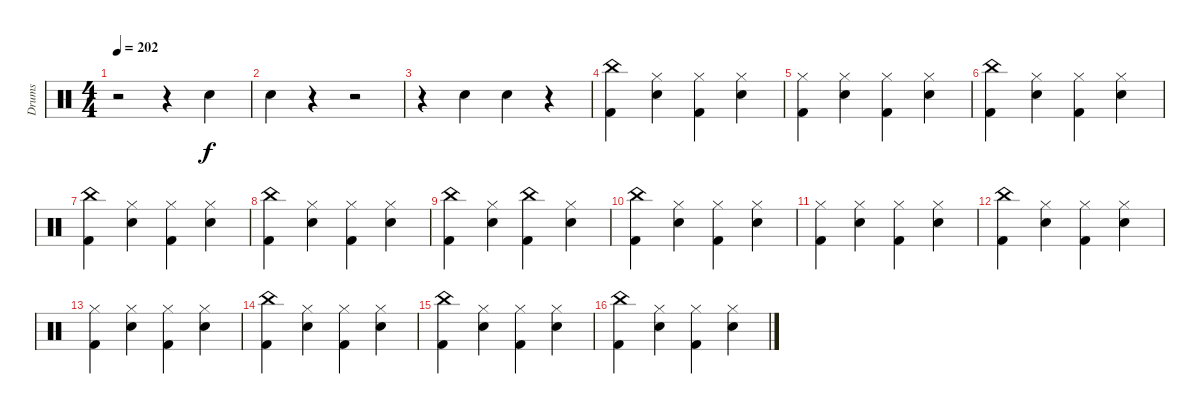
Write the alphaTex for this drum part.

\track ("Drums" "Drums") {instrument percussion}
\staff {score}
\articulation defaults
\ts (4 4)
\tempo 202
\clef neutral
\ks c
r.2{dy f} r.4 "Snare (hit) 2".4 |
"Snare (hit) 2".4 r.4 r.2 |
r.4 "Snare (hit) 2".4 "Snare (hit) 2".4 r.4 |
("China (hit)" "Kick (hit) 2").4 ("Hi-Hat (closed)" "Snare (hit) 2").4 ("Hi-Hat (closed)" "Kick (hit) 2").4 ("Hi-Hat (closed)" "Snare (hit) 2").4 |
("Hi-Hat (closed)" "Kick (hit) 2").4 ("Hi-Hat (closed)" "Snare (hit) 2").4 ("Hi-Hat (closed)" "Kick (hit) 2").4 ("Hi-Hat (closed)" "Snare (hit) 2").4 |
("China (hit)" "Kick (hit) 2").4 ("Hi-Hat (closed)" "Snare (hit) 2").4 ("Hi-Hat (closed)" "Kick (hit) 2").4 ("Hi-Hat (closed)" "Snare (hit) 2").4 |
("China (hit)" "Kick (hit) 2").4 ("Hi-Hat (closed)" "Snare (hit) 2").4 ("Hi-Hat (closed)" "Kick (hit) 2").4 ("Hi-Hat (closed)" "Snare (hit) 2").4 |
("China (hit)" "Kick (hit) 2").4 ("Hi-Hat (closed)" "Snare (hit) 2").4 ("Hi-Hat (closed)" "Kick (hit) 2").4 ("Hi-Hat (closed)" "Snare (hit) 2").4 |
("China (hit)" "Kick (hit) 2").4 ("Hi-Hat (closed)" "Snare (hit) 2").4 ("China (hit)" "Kick (hit) 2").4 ("Hi-Hat (closed)" "Snare (hit) 2").4 |
("China (hit)" "Kick (hit) 2").4 ("Hi-Hat (closed)" "Snare (hit) 2").4 ("Hi-Hat (closed)" "Kick (hit) 2").4 ("Hi-Hat (closed)" "Snare (hit) 2").4 |
("Hi-Hat (closed)" "Kick (hit) 2").4 ("Hi-Hat (closed)" "Snare (hit) 2").4 ("Hi-Hat (closed)" "Kick (hit) 2").4 ("Hi-Hat (closed)" "Snare (hit) 2").4 |
("China (hit)" "Kick (hit) 2").4 ("Hi-Hat (closed)" "Snare (hit) 2").4 ("Hi-Hat (closed)" "Kick (hit) 2").4 ("Hi-Hat (closed)" "Snare (hit) 2").4 |
("Hi-Hat (closed)" "Kick (hit) 2").4 ("Hi-Hat (closed)" "Snare (hit) 2").4 ("Hi-Hat (closed)" "Kick (hit) 2").4 ("Hi-Hat (closed)" "Snare (hit) 2").4 |
("China (hit)" "Kick (hit) 2").4 ("Hi-Hat (closed)" "Snare (hit) 2").4 ("Hi-Hat (closed)" "Kick (hit) 2").4 ("Hi-Hat (closed)" "Snare (hit) 2").4 |
("China (hit)" "Kick (hit) 2").4 ("Hi-Hat (closed)" "Snare (hit) 2").4 ("Hi-Hat (closed)" "Kick (hit) 2").4 ("Hi-Hat (closed)" "Snare (hit) 2").4 |
("China (hit)" "Kick (hit) 2").4 ("Hi-Hat (closed)" "Snare (hit) 2").4 ("Hi-Hat (closed)" "Kick (hit) 2").4 ("Hi-Hat (closed)" "Snare (hit) 2").4
